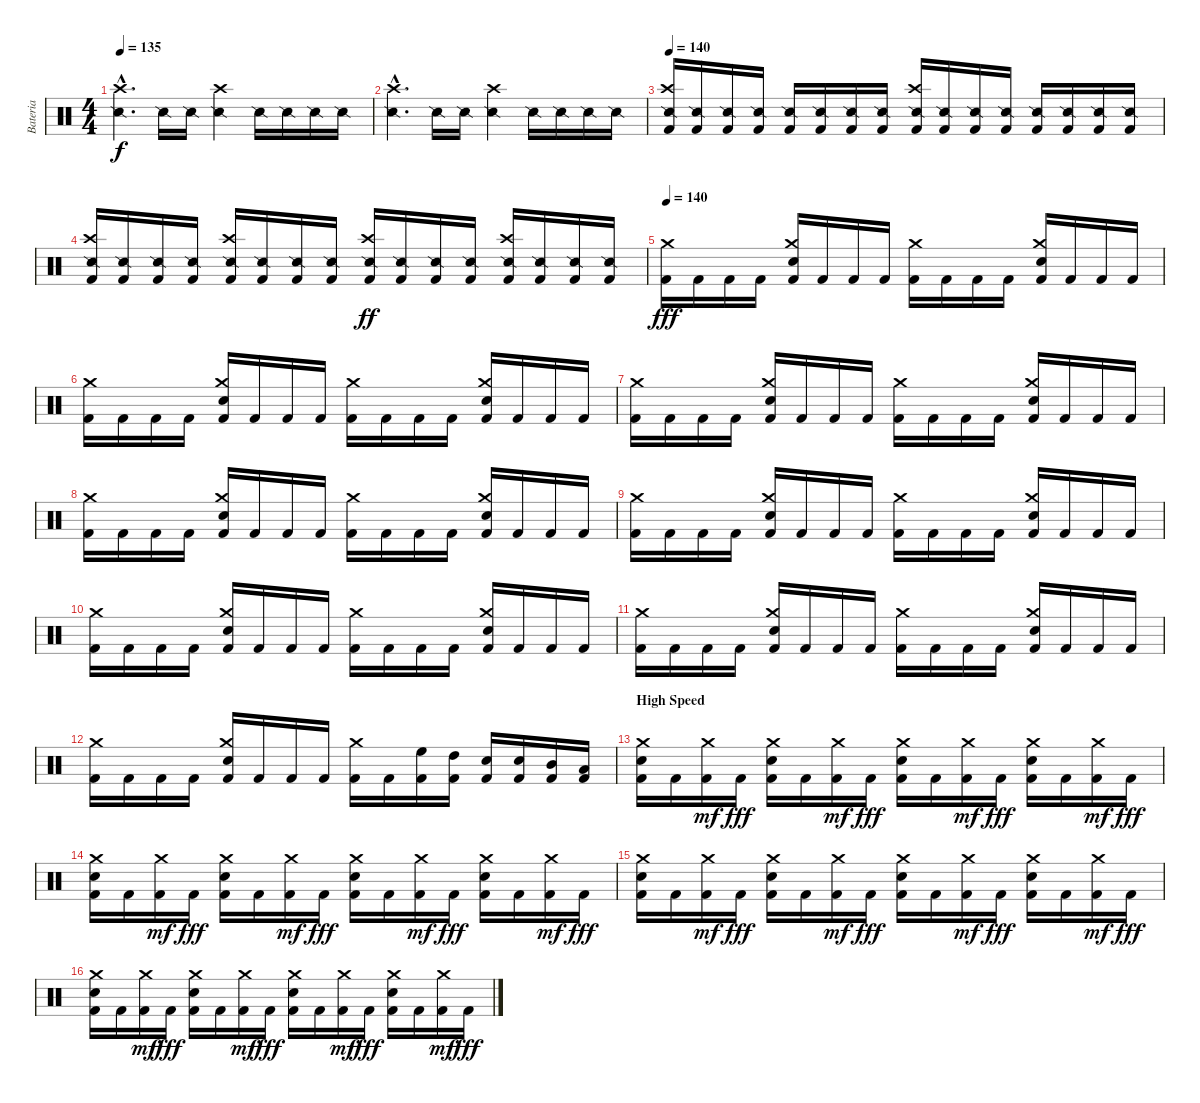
\track ("Bateria" "Bateria") {instrument percussion}
\staff {score}
\articulation defaults
\ts (4 4)
\tempo 135
\clef neutral
\ks c
("Snare (side stick) 2"{hac} "Crash high (hit)"{hac}).4{d dy f} "Snare (side stick) 2".16 "Snare (side stick) 2".16 ("Snare (side stick) 2" "Crash high (hit)").4 "Snare (side stick) 2".16 "Snare (side stick) 2".16 "Snare (side stick) 2".16 "Snare (side stick) 2".16 |
("Snare (side stick) 2"{hac} "Crash high (hit)"{hac}).4{d} "Snare (side stick) 2".16 "Snare (side stick) 2".16 ("Snare (side stick) 2" "Crash high (hit)").4 "Snare (side stick) 2".16 "Snare (side stick) 2".16 "Snare (side stick) 2".16 "Snare (side stick) 2".16 |
\tempo 140
("Kick (hit) 2" "Snare (side stick) 2" "Crash high (hit)").16 ("Kick (hit) 2" "Snare (side stick) 2").16 ("Kick (hit) 2" "Snare (side stick) 2").16 ("Kick (hit) 2" "Snare (side stick) 2").16 ("Kick (hit) 2" "Snare (side stick) 2").16 ("Kick (hit) 2" "Snare (side stick) 2").16 ("Kick (hit) 2" "Snare (side stick) 2").16 ("Kick (hit) 2" "Snare (side stick) 2").16 ("Kick (hit) 2" "Snare (side stick) 2" "Crash high (hit)").16 ("Kick (hit) 2" "Snare (side stick) 2").16 ("Kick (hit) 2" "Snare (side stick) 2").16 ("Kick (hit) 2" "Snare (side stick) 2").16 ("Kick (hit) 2" "Snare (side stick) 2").16 ("Kick (hit) 2" "Snare (side stick) 2").16 ("Kick (hit) 2" "Snare (side stick) 2").16 ("Kick (hit) 2" "Snare (side stick) 2").16 |
("Kick (hit) 2" "Snare (side stick) 2" "Crash high (hit)").16 ("Kick (hit) 2" "Snare (side stick) 2").16 ("Kick (hit) 2" "Snare (side stick) 2").16 ("Kick (hit) 2" "Snare (side stick) 2").16 ("Kick (hit) 2" "Snare (side stick) 2" "Crash high (hit)").16 ("Kick (hit) 2" "Snare (side stick) 2").16 ("Kick (hit) 2" "Snare (side stick) 2").16 ("Kick (hit) 2" "Snare (side stick) 2").16 ("Kick (hit) 2" "Snare (side stick) 2" "Crash high (hit)").16{dy ff} ("Kick (hit) 2" "Snare (side stick) 2").16 ("Kick (hit) 2" "Snare (side stick) 2").16 ("Kick (hit) 2" "Snare (side stick) 2").16 ("Kick (hit) 2" "Snare (side stick) 2" "Crash high (hit)").16 ("Kick (hit) 2" "Snare (side stick) 2").16 ("Kick (hit) 2" "Snare (side stick) 2").16 ("Kick (hit) 2" "Snare (side stick) 2").16 |
\tempo 140
("Kick (hit) 2" "Crash medium (hit)").16{dy fff} "Kick (hit) 2".16 "Kick (hit) 2".16 "Kick (hit) 2".16 ("Kick (hit) 2" "Metronome (bell)" "Crash medium (hit)").16 "Kick (hit) 2".16 "Kick (hit) 2".16 "Kick (hit) 2".16 ("Kick (hit) 2" "Crash medium (hit)").16 "Kick (hit) 2".16 "Kick (hit) 2".16 "Kick (hit) 2".16 ("Kick (hit) 2" "Metronome (bell)" "Crash medium (hit)").16 "Kick (hit) 2".16 "Kick (hit) 2".16 "Kick (hit) 2".16 |
("Kick (hit) 2" "Crash medium (hit)").16 "Kick (hit) 2".16 "Kick (hit) 2".16 "Kick (hit) 2".16 ("Kick (hit) 2" "Metronome (bell)" "Crash medium (hit)").16 "Kick (hit) 2".16 "Kick (hit) 2".16 "Kick (hit) 2".16 ("Kick (hit) 2" "Crash medium (hit)").16 "Kick (hit) 2".16 "Kick (hit) 2".16 "Kick (hit) 2".16 ("Kick (hit) 2" "Metronome (bell)" "Crash medium (hit)").16 "Kick (hit) 2".16 "Kick (hit) 2".16 "Kick (hit) 2".16 |
("Kick (hit) 2" "Crash medium (hit)").16 "Kick (hit) 2".16 "Kick (hit) 2".16 "Kick (hit) 2".16 ("Kick (hit) 2" "Metronome (bell)" "Crash medium (hit)").16 "Kick (hit) 2".16 "Kick (hit) 2".16 "Kick (hit) 2".16 ("Kick (hit) 2" "Crash medium (hit)").16 "Kick (hit) 2".16 "Kick (hit) 2".16 "Kick (hit) 2".16 ("Kick (hit) 2" "Metronome (bell)" "Crash medium (hit)").16 "Kick (hit) 2".16 "Kick (hit) 2".16 "Kick (hit) 2".16 |
("Kick (hit) 2" "Crash medium (hit)").16 "Kick (hit) 2".16 "Kick (hit) 2".16 "Kick (hit) 2".16 ("Kick (hit) 2" "Metronome (bell)" "Crash medium (hit)").16 "Kick (hit) 2".16 "Kick (hit) 2".16 "Kick (hit) 2".16 ("Kick (hit) 2" "Crash medium (hit)").16 "Kick (hit) 2".16 "Kick (hit) 2".16 "Kick (hit) 2".16 ("Kick (hit) 2" "Metronome (bell)" "Crash medium (hit)").16 "Kick (hit) 2".16 "Kick (hit) 2".16 "Kick (hit) 2".16 |
("Kick (hit) 2" "Crash medium (hit)").16 "Kick (hit) 2".16 "Kick (hit) 2".16 "Kick (hit) 2".16 ("Kick (hit) 2" "Metronome (bell)" "Crash medium (hit)").16 "Kick (hit) 2".16 "Kick (hit) 2".16 "Kick (hit) 2".16 ("Kick (hit) 2" "Crash medium (hit)").16 "Kick (hit) 2".16 "Kick (hit) 2".16 "Kick (hit) 2".16 ("Kick (hit) 2" "Metronome (bell)" "Crash medium (hit)").16 "Kick (hit) 2".16 "Kick (hit) 2".16 "Kick (hit) 2".16 |
("Kick (hit) 2" "Crash medium (hit)").16 "Kick (hit) 2".16 "Kick (hit) 2".16 "Kick (hit) 2".16 ("Kick (hit) 2" "Metronome (bell)" "Crash medium (hit)").16 "Kick (hit) 2".16 "Kick (hit) 2".16 "Kick (hit) 2".16 ("Kick (hit) 2" "Crash medium (hit)").16 "Kick (hit) 2".16 "Kick (hit) 2".16 "Kick (hit) 2".16 ("Kick (hit) 2" "Metronome (bell)" "Crash medium (hit)").16 "Kick (hit) 2".16 "Kick (hit) 2".16 "Kick (hit) 2".16 |
("Kick (hit) 2" "Crash medium (hit)").16 "Kick (hit) 2".16 "Kick (hit) 2".16 "Kick (hit) 2".16 ("Kick (hit) 2" "Metronome (bell)" "Crash medium (hit)").16 "Kick (hit) 2".16 "Kick (hit) 2".16 "Kick (hit) 2".16 ("Kick (hit) 2" "Crash medium (hit)").16 "Kick (hit) 2".16 "Kick (hit) 2".16 "Kick (hit) 2".16 ("Kick (hit) 2" "Metronome (bell)" "Crash medium (hit)").16 "Kick (hit) 2".16 "Kick (hit) 2".16 "Kick (hit) 2".16 |
("Kick (hit) 2" "Crash medium (hit)").16 "Kick (hit) 2".16 "Kick (hit) 2".16 "Kick (hit) 2".16 ("Kick (hit) 2" "Metronome (bell)" "Crash medium (hit)").16 "Kick (hit) 2".16 "Kick (hit) 2".16 "Kick (hit) 2".16 ("Kick (hit) 2" "Crash medium (hit)").16 "Kick (hit) 2".16 ("Kick (hit) 2" "High Floor Tom (hit)").16 ("Kick (hit) 2" "High Tom (hit)").16 ("Kick (hit) 2" "Metronome (bell)").16 ("Kick (hit) 2" "Metronome (bell)").16 ("Kick (hit) 2" "Mid Tom (hit)").16 ("Kick (hit) 2" "Low Tom (hit)").16 |
\section ("" "High Speed")
("Kick (hit) 2" "Metronome (bell)" "Crash medium (hit)").16 "Kick (hit) 2".16 ("Kick (hit) 2" "Crash medium (hit)").16{dy mf} "Kick (hit) 2".16{dy fff} ("Kick (hit) 2" "Metronome (bell)" "Crash medium (hit)").16 "Kick (hit) 2".16 ("Kick (hit) 2" "Crash medium (hit)").16{dy mf} "Kick (hit) 2".16{dy fff} ("Kick (hit) 2" "Metronome (bell)" "Crash medium (hit)").16 "Kick (hit) 2".16 ("Kick (hit) 2" "Crash medium (hit)").16{dy mf} "Kick (hit) 2".16{dy fff} ("Kick (hit) 2" "Metronome (bell)" "Crash medium (hit)").16 "Kick (hit) 2".16 ("Kick (hit) 2" "Crash medium (hit)").16{dy mf} "Kick (hit) 2".16{dy fff} |
("Kick (hit) 2" "Metronome (bell)" "Crash medium (hit)").16 "Kick (hit) 2".16 ("Kick (hit) 2" "Crash medium (hit)").16{dy mf} "Kick (hit) 2".16{dy fff} ("Kick (hit) 2" "Metronome (bell)" "Crash medium (hit)").16 "Kick (hit) 2".16 ("Kick (hit) 2" "Crash medium (hit)").16{dy mf} "Kick (hit) 2".16{dy fff} ("Kick (hit) 2" "Metronome (bell)" "Crash medium (hit)").16 "Kick (hit) 2".16 ("Kick (hit) 2" "Crash medium (hit)").16{dy mf} "Kick (hit) 2".16{dy fff} ("Kick (hit) 2" "Metronome (bell)" "Crash medium (hit)").16 "Kick (hit) 2".16 ("Kick (hit) 2" "Crash medium (hit)").16{dy mf} "Kick (hit) 2".16{dy fff} |
("Kick (hit) 2" "Metronome (bell)" "Crash medium (hit)").16 "Kick (hit) 2".16 ("Kick (hit) 2" "Crash medium (hit)").16{dy mf} "Kick (hit) 2".16{dy fff} ("Kick (hit) 2" "Metronome (bell)" "Crash medium (hit)").16 "Kick (hit) 2".16 ("Kick (hit) 2" "Crash medium (hit)").16{dy mf} "Kick (hit) 2".16{dy fff} ("Kick (hit) 2" "Metronome (bell)" "Crash medium (hit)").16 "Kick (hit) 2".16 ("Kick (hit) 2" "Crash medium (hit)").16{dy mf} "Kick (hit) 2".16{dy fff} ("Kick (hit) 2" "Metronome (bell)" "Crash medium (hit)").16 "Kick (hit) 2".16 ("Kick (hit) 2" "Crash medium (hit)").16{dy mf} "Kick (hit) 2".16{dy fff} |
("Kick (hit) 2" "Metronome (bell)" "Crash medium (hit)").16 "Kick (hit) 2".16 ("Kick (hit) 2" "Crash medium (hit)").16{dy mf} "Kick (hit) 2".16{dy fff} ("Kick (hit) 2" "Metronome (bell)" "Crash medium (hit)").16 "Kick (hit) 2".16 ("Kick (hit) 2" "Crash medium (hit)").16{dy mf} "Kick (hit) 2".16{dy fff} ("Kick (hit) 2" "Metronome (bell)" "Crash medium (hit)").16 "Kick (hit) 2".16 ("Kick (hit) 2" "Crash medium (hit)").16{dy mf} "Kick (hit) 2".16{dy fff} ("Kick (hit) 2" "Metronome (bell)" "Crash medium (hit)").16 "Kick (hit) 2".16 ("Kick (hit) 2" "Crash medium (hit)").16{dy mf} "Kick (hit) 2".16{dy fff}
